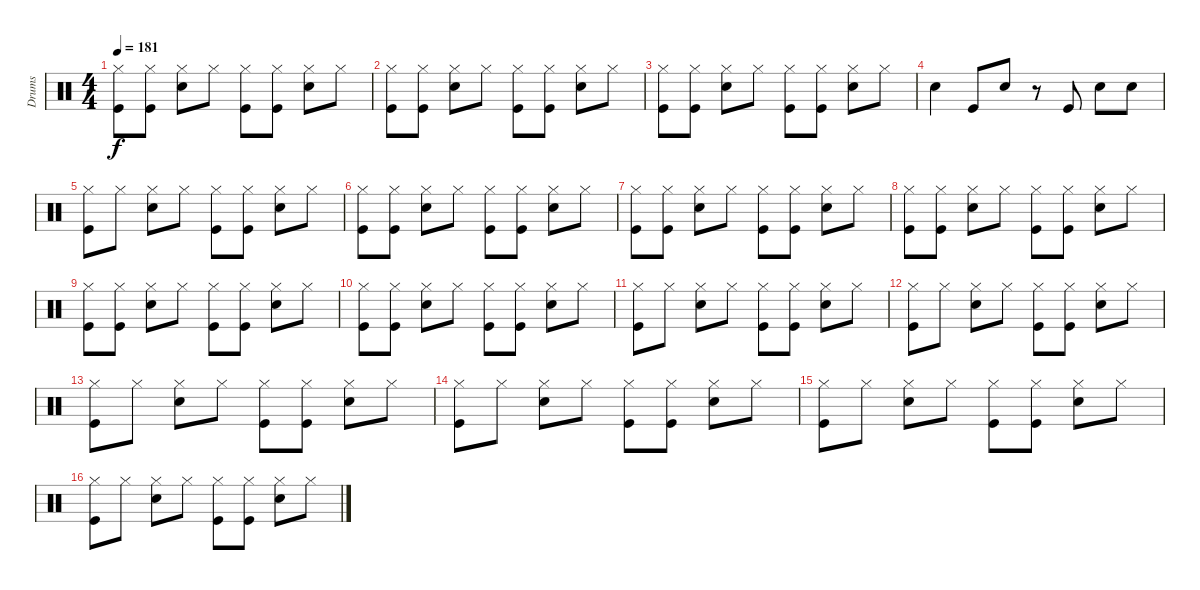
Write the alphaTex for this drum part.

\track ("Drums" "Drums") {instrument percussion}
\staff {score}
\articulation defaults
\ts (4 4)
\tempo 181
\clef neutral
\ks c
("Hi-Hat (closed)" "Kick (hit)").8{dy f} ("Hi-Hat (closed)" "Kick (hit)").8 ("Hi-Hat (closed)" "Snare (hit) 2").8 "Hi-Hat (closed)".8 ("Hi-Hat (closed)" "Kick (hit)").8 ("Hi-Hat (closed)" "Kick (hit)").8 ("Hi-Hat (closed)" "Snare (hit) 2").8 "Hi-Hat (closed)".8 |
("Hi-Hat (closed)" "Kick (hit)").8 ("Hi-Hat (closed)" "Kick (hit)").8 ("Hi-Hat (closed)" "Snare (hit) 2").8 "Hi-Hat (closed)".8 ("Hi-Hat (closed)" "Kick (hit)").8 ("Hi-Hat (closed)" "Kick (hit)").8 ("Hi-Hat (closed)" "Snare (hit) 2").8 "Hi-Hat (closed)".8 |
("Hi-Hat (closed)" "Kick (hit)").8 ("Hi-Hat (closed)" "Kick (hit)").8 ("Hi-Hat (closed)" "Snare (hit) 2").8 "Hi-Hat (closed)".8 ("Hi-Hat (closed)" "Kick (hit)").8 ("Hi-Hat (closed)" "Kick (hit)").8 ("Hi-Hat (closed)" "Snare (hit) 2").8 "Hi-Hat (closed)".8 |
"Snare (hit) 2".4 "Kick (hit)".8 "Snare (hit) 2".8 r.8 "Kick (hit)".8 "Snare (hit) 2".8 "Snare (hit) 2".8 |
("Hi-Hat (closed)" "Kick (hit)").8 "Hi-Hat (closed)".8 ("Hi-Hat (closed)" "Snare (hit) 2").8 "Hi-Hat (closed)".8 ("Hi-Hat (closed)" "Kick (hit)").8 ("Hi-Hat (closed)" "Kick (hit)").8 ("Hi-Hat (closed)" "Snare (hit) 2").8 "Hi-Hat (closed)".8 |
("Hi-Hat (closed)" "Kick (hit)").8 ("Hi-Hat (closed)" "Kick (hit)").8 ("Hi-Hat (closed)" "Snare (hit) 2").8 "Hi-Hat (closed)".8 ("Hi-Hat (closed)" "Kick (hit)").8 ("Hi-Hat (closed)" "Kick (hit)").8 ("Hi-Hat (closed)" "Snare (hit) 2").8 "Hi-Hat (closed)".8 |
("Hi-Hat (closed)" "Kick (hit)").8 ("Hi-Hat (closed)" "Kick (hit)").8 ("Hi-Hat (closed)" "Snare (hit) 2").8 "Hi-Hat (closed)".8 ("Hi-Hat (closed)" "Kick (hit)").8 ("Hi-Hat (closed)" "Kick (hit)").8 ("Hi-Hat (closed)" "Snare (hit) 2").8 "Hi-Hat (closed)".8 |
("Hi-Hat (closed)" "Kick (hit)").8 ("Hi-Hat (closed)" "Kick (hit)").8 ("Hi-Hat (closed)" "Snare (hit) 2").8 "Hi-Hat (closed)".8 ("Hi-Hat (closed)" "Kick (hit)").8 ("Hi-Hat (closed)" "Kick (hit)").8 ("Hi-Hat (closed)" "Snare (hit) 2").8 "Hi-Hat (closed)".8 |
("Hi-Hat (closed)" "Kick (hit)").8 ("Hi-Hat (closed)" "Kick (hit)").8 ("Hi-Hat (closed)" "Snare (hit) 2").8 "Hi-Hat (closed)".8 ("Hi-Hat (closed)" "Kick (hit)").8 ("Hi-Hat (closed)" "Kick (hit)").8 ("Hi-Hat (closed)" "Snare (hit) 2").8 "Hi-Hat (closed)".8 |
("Hi-Hat (closed)" "Kick (hit)").8 ("Hi-Hat (closed)" "Kick (hit)").8 ("Hi-Hat (closed)" "Snare (hit) 2").8 "Hi-Hat (closed)".8 ("Hi-Hat (closed)" "Kick (hit)").8 ("Hi-Hat (closed)" "Kick (hit)").8 ("Hi-Hat (closed)" "Snare (hit) 2").8 "Hi-Hat (closed)".8 |
("Hi-Hat (closed)" "Kick (hit)").8 "Hi-Hat (closed)".8 ("Hi-Hat (closed)" "Snare (hit) 2").8 "Hi-Hat (closed)".8 ("Hi-Hat (closed)" "Kick (hit)").8 ("Hi-Hat (closed)" "Kick (hit)").8 ("Hi-Hat (closed)" "Snare (hit) 2").8 "Hi-Hat (closed)".8 |
("Hi-Hat (closed)" "Kick (hit)").8 "Hi-Hat (closed)".8 ("Hi-Hat (closed)" "Snare (hit) 2").8 "Hi-Hat (closed)".8 ("Hi-Hat (closed)" "Kick (hit)").8 ("Hi-Hat (closed)" "Kick (hit)").8 ("Hi-Hat (closed)" "Snare (hit) 2").8 "Hi-Hat (closed)".8 |
("Hi-Hat (closed)" "Kick (hit)").8 "Hi-Hat (closed)".8 ("Hi-Hat (closed)" "Snare (hit) 2").8 "Hi-Hat (closed)".8 ("Hi-Hat (closed)" "Kick (hit)").8 ("Hi-Hat (closed)" "Kick (hit)").8 ("Hi-Hat (closed)" "Snare (hit) 2").8 "Hi-Hat (closed)".8 |
("Hi-Hat (closed)" "Kick (hit)").8 "Hi-Hat (closed)".8 ("Hi-Hat (closed)" "Snare (hit) 2").8 "Hi-Hat (closed)".8 ("Hi-Hat (closed)" "Kick (hit)").8 ("Hi-Hat (closed)" "Kick (hit)").8 ("Hi-Hat (closed)" "Snare (hit) 2").8 "Hi-Hat (closed)".8 |
("Hi-Hat (closed)" "Kick (hit)").8 "Hi-Hat (closed)".8 ("Hi-Hat (closed)" "Snare (hit) 2").8 "Hi-Hat (closed)".8 ("Hi-Hat (closed)" "Kick (hit)").8 ("Hi-Hat (closed)" "Kick (hit)").8 ("Hi-Hat (closed)" "Snare (hit) 2").8 "Hi-Hat (closed)".8 |
("Hi-Hat (closed)" "Kick (hit)").8 "Hi-Hat (closed)".8 ("Hi-Hat (closed)" "Snare (hit) 2").8 "Hi-Hat (closed)".8 ("Hi-Hat (closed)" "Kick (hit)").8 ("Hi-Hat (closed)" "Kick (hit)").8 ("Hi-Hat (closed)" "Snare (hit) 2").8 "Hi-Hat (closed)".8
